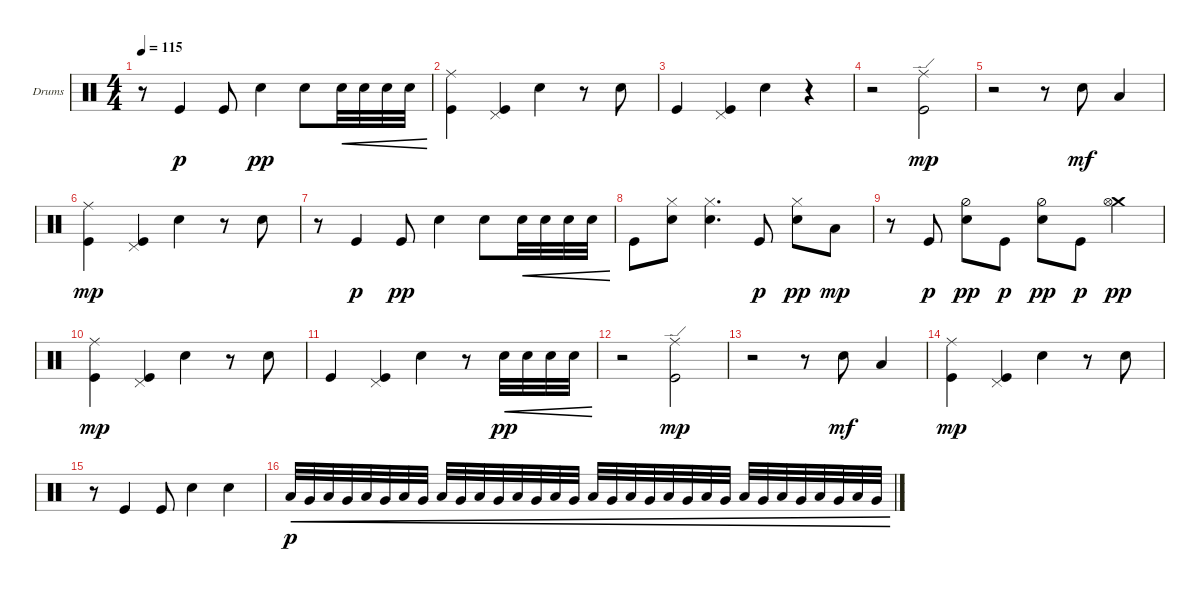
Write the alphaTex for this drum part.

\defaultSystemsLayout 4
\bracketExtendMode groupsimilarinstruments
\firstSystemTrackNameOrientation horizontal
\otherSystemsTrackNameOrientation horizontal
\track ("Drumkit" "Drums") {instrument percussion}
\staff {score}
\articulation defaults
\ts (4 4)
\tempo 115
\clef neutral
\ks c
r.8{dy pp} "Kick (hit)".4{dy p} "Kick (hit)".8 "Snare (hit) 2".4{dy pp} "Snare (hit) 2".8 "Snare (hit) 2".32{cre} "Snare (hit) 2".32{cre} "Snare (hit) 2".32{cre} "Snare (hit) 2".32{cre} |
("Kick (hit)" "Ride (middle)").4 ("Kick (hit)" "Pedal Hi-Hat (hit)").4 "Snare (hit) 2".4 r.8 "Snare (hit) 2".8 |
"Kick (hit)".4 ("Kick (hit)" "Pedal Hi-Hat (hit)").4 "Snare (hit) 2".4 r.4 |
r.2 ("Kick (hit)" "Ride (edge)").2{dy mp} |
r.2 r.8 "Snare (hit) 2".8{dy mf} "Low Tom (hit)".4 |
("Kick (hit)" "Ride (middle)").4{dy mp} ("Kick (hit)" "Pedal Hi-Hat (hit)").4 "Snare (hit) 2".4 r.8 "Snare (hit) 2".8 |
r.8 "Kick (hit)".4{dy p} "Kick (hit)".8{dy pp} "Snare (hit) 2".4 "Snare (hit) 2".8 "Snare (hit) 2".32{cre} "Snare (hit) 2".32{cre} "Snare (hit) 2".32{cre} "Snare (hit) 2".32{cre} |
"Kick (hit)".8 ("Snare (hit) 2" "Hi-Hat (closed)").8 ("Snare (hit) 2" "Hi-Hat (closed)").4{d} "Kick (hit)".8{dy p} ("Snare (hit) 2" "Hi-Hat (closed)").8{dy pp} "Low Tom (hit)".8{dy mp} |
r.8 "Kick (hit)".8{dy p} ("Snare (hit) 2" "Hi-Hat (half)").8{dy pp} "Kick (hit)".8{dy p} ("Snare (hit) 2" "Hi-Hat (half)").8{dy pp} "Kick (hit)".8{dy p} ("Crash medium (hit)" "Hi-Hat (open)").4{dy pp} |
("Kick (hit)" "Ride (middle)").4{dy mp} ("Kick (hit)" "Pedal Hi-Hat (hit)").4 "Snare (hit) 2".4 r.8 "Snare (hit) 2".8 |
"Kick (hit)".4 ("Kick (hit)" "Pedal Hi-Hat (hit)").4 "Snare (hit) 2".4 r.8 "Snare (hit) 2".32{cre dy pp} "Snare (hit) 2".32{cre} "Snare (hit) 2".32{cre} "Snare (hit) 2".32{cre} |
r.2 ("Kick (hit)" "Ride (edge)").2{dy mp} |
r.2 r.8 "Snare (hit) 2".8{dy mf} "Low Tom (hit)".4 |
("Kick (hit)" "Ride (middle)").4{dy mp} ("Kick (hit)" "Pedal Hi-Hat (hit)").4 "Snare (hit) 2".4 r.8 "Snare (hit) 2".8 |
r.8 "Kick (hit)".4 "Kick (hit)".8 "Snare (hit) 2".4 "Snare (hit) 2".4 |
"Low Tom (hit)".32{cre dy p} "Very Low Tom (hit)".32{cre} "Low Tom (hit)".32{cre} "Very Low Tom (hit)".32{cre} "Low Tom (hit)".32{cre} "Very Low Tom (hit)".32{cre} "Low Tom (hit)".32{cre} "Very Low Tom (hit)".32{cre} "Low Tom (hit)".32{cre} "Very Low Tom (hit)".32{cre} "Low Tom (hit)".32{cre} "Very Low Tom (hit)".32{cre} "Low Tom (hit)".32{cre} "Very Low Tom (hit)".32{cre} "Low Tom (hit)".32{cre} "Very Low Tom (hit)".32{cre} "Low Tom (hit)".32{cre} "Very Low Tom (hit)".32{cre} "Low Tom (hit)".32{cre} "Very Low Tom (hit)".32{cre} "Low Tom (hit)".32{cre} "Very Low Tom (hit)".32{cre} "Low Tom (hit)".32{cre} "Very Low Tom (hit)".32{cre} "Low Tom (hit)".32{cre} "Very Low Tom (hit)".32{cre} "Low Tom (hit)".32{cre} "Very Low Tom (hit)".32{cre} "Low Tom (hit)".32{cre} "Very Low Tom (hit)".32{cre} "Low Tom (hit)".32{cre} "Very Low Tom (hit)".32{cre}
